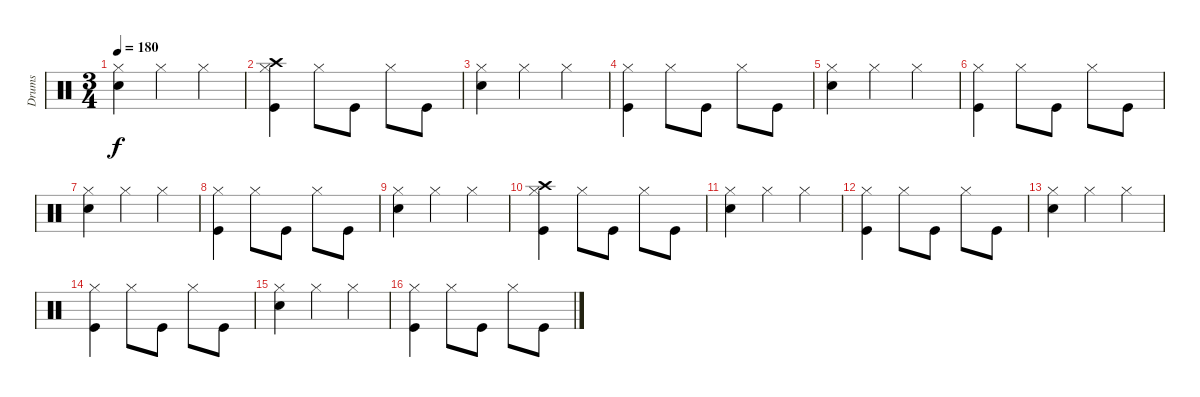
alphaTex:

\track ("Drums" "Drums") {instrument percussion}
\staff {score}
\articulation defaults
\ts (3 4)
\tempo 180
\clef neutral
\ks c
("Hi-Hat (closed)" "Electric Snare (hit)").4{dy f} "Hi-Hat (closed)".4 "Hi-Hat (closed)".4 |
("Crash high (hit)" "Hi-Hat (closed)" "Kick (hit)").4 "Hi-Hat (closed)".8 "Kick (hit)".8 "Hi-Hat (closed)".8 "Kick (hit)".8 |
("Hi-Hat (closed)" "Electric Snare (hit)").4 "Hi-Hat (closed)".4 "Hi-Hat (closed)".4 |
("Hi-Hat (closed)" "Kick (hit)").4 "Hi-Hat (closed)".8 "Kick (hit)".8 "Hi-Hat (closed)".8 "Kick (hit)".8 |
("Hi-Hat (closed)" "Electric Snare (hit)").4 "Hi-Hat (closed)".4 "Hi-Hat (closed)".4 |
("Hi-Hat (closed)" "Kick (hit)").4 "Hi-Hat (closed)".8 "Kick (hit)".8 "Hi-Hat (closed)".8 "Kick (hit)".8 |
("Hi-Hat (closed)" "Electric Snare (hit)").4 "Hi-Hat (closed)".4 "Hi-Hat (closed)".4 |
("Hi-Hat (closed)" "Kick (hit)").4 "Hi-Hat (closed)".8 "Kick (hit)".8 "Hi-Hat (closed)".8 "Kick (hit)".8 |
("Hi-Hat (closed)" "Electric Snare (hit)").4 "Hi-Hat (closed)".4 "Hi-Hat (closed)".4 |
("Crash high (hit)" "Hi-Hat (closed)" "Kick (hit)").4 "Hi-Hat (closed)".8 "Kick (hit)".8 "Hi-Hat (closed)".8 "Kick (hit)".8 |
("Hi-Hat (closed)" "Electric Snare (hit)").4 "Hi-Hat (closed)".4 "Hi-Hat (closed)".4 |
("Hi-Hat (closed)" "Kick (hit)").4 "Hi-Hat (closed)".8 "Kick (hit)".8 "Hi-Hat (closed)".8 "Kick (hit)".8 |
("Hi-Hat (closed)" "Electric Snare (hit)").4 "Hi-Hat (closed)".4 "Hi-Hat (closed)".4 |
("Hi-Hat (closed)" "Kick (hit)").4 "Hi-Hat (closed)".8 "Kick (hit)".8 "Hi-Hat (closed)".8 "Kick (hit)".8 |
("Hi-Hat (closed)" "Electric Snare (hit)").4 "Hi-Hat (closed)".4 "Hi-Hat (closed)".4 |
("Hi-Hat (closed)" "Kick (hit)").4 "Hi-Hat (closed)".8 "Kick (hit)".8 "Hi-Hat (closed)".8 "Kick (hit)".8
